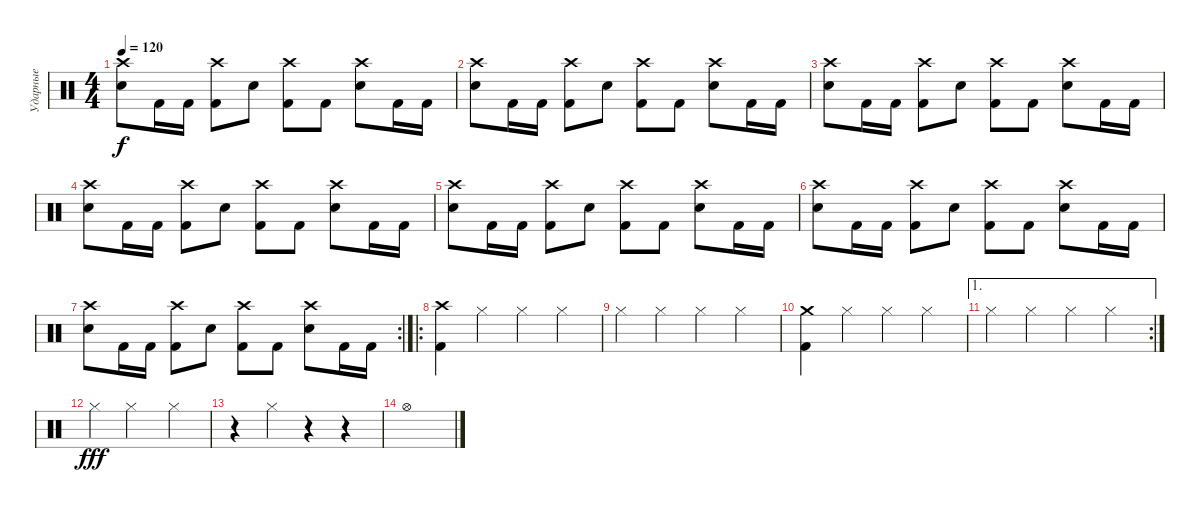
\track ("Ударные" "Ударные") {instrument percussion}
\staff {score}
\articulation defaults
\ts (4 4)
\tempo 120
\clef neutral
\ks c
("Snare (hit) 2" "Crash high (hit)").8{dy f} "Kick (hit) 2".16 "Kick (hit) 2".16 ("Kick (hit) 2" "Crash high (hit)").8 "Snare (hit) 2".8 ("Kick (hit) 2" "Crash high (hit)").8 "Kick (hit) 2".8 ("Snare (hit) 2" "Crash high (hit)").8 "Kick (hit) 2".16 "Kick (hit) 2".16 |
("Snare (hit) 2" "Crash high (hit)").8 "Kick (hit) 2".16 "Kick (hit) 2".16 ("Kick (hit) 2" "Crash high (hit)").8 "Snare (hit) 2".8 ("Kick (hit) 2" "Crash high (hit)").8 "Kick (hit) 2".8 ("Snare (hit) 2" "Crash high (hit)").8 "Kick (hit) 2".16 "Kick (hit) 2".16 |
("Snare (hit) 2" "Crash high (hit)").8 "Kick (hit) 2".16 "Kick (hit) 2".16 ("Kick (hit) 2" "Crash high (hit)").8 "Snare (hit) 2".8 ("Kick (hit) 2" "Crash high (hit)").8 "Kick (hit) 2".8 ("Snare (hit) 2" "Crash high (hit)").8 "Kick (hit) 2".16 "Kick (hit) 2".16 |
("Snare (hit) 2" "Crash high (hit)").8 "Kick (hit) 2".16 "Kick (hit) 2".16 ("Kick (hit) 2" "Crash high (hit)").8 "Snare (hit) 2".8 ("Kick (hit) 2" "Crash high (hit)").8 "Kick (hit) 2".8 ("Snare (hit) 2" "Crash high (hit)").8 "Kick (hit) 2".16 "Kick (hit) 2".16 |
("Snare (hit) 2" "Crash high (hit)").8 "Kick (hit) 2".16 "Kick (hit) 2".16 ("Kick (hit) 2" "Crash high (hit)").8 "Snare (hit) 2".8 ("Kick (hit) 2" "Crash high (hit)").8 "Kick (hit) 2".8 ("Snare (hit) 2" "Crash high (hit)").8 "Kick (hit) 2".16 "Kick (hit) 2".16 |
("Snare (hit) 2" "Crash high (hit)").8 "Kick (hit) 2".16 "Kick (hit) 2".16 ("Kick (hit) 2" "Crash high (hit)").8 "Snare (hit) 2".8 ("Kick (hit) 2" "Crash high (hit)").8 "Kick (hit) 2".8 ("Snare (hit) 2" "Crash high (hit)").8 "Kick (hit) 2".16 "Kick (hit) 2".16 |
\rc 2
("Snare (hit) 2" "Crash high (hit)").8 "Kick (hit) 2".16 "Kick (hit) 2".16 ("Kick (hit) 2" "Crash high (hit)").8 "Snare (hit) 2".8 ("Kick (hit) 2" "Crash high (hit)").8 "Kick (hit) 2".8 ("Snare (hit) 2" "Crash high (hit)").8 "Kick (hit) 2".16 "Kick (hit) 2".16 |
\ro
("Kick (hit) 2" "Crash high (hit)").4 "Hi-Hat (closed)".4 "Hi-Hat (closed)".4 "Hi-Hat (closed)".4 |
"Hi-Hat (closed)".4 "Hi-Hat (closed)".4 "Hi-Hat (closed)".4 "Hi-Hat (closed)".4 |
("Crash medium (hit)" "Kick (hit) 2").4 "Hi-Hat (closed)".4 "Hi-Hat (closed)".4 "Hi-Hat (closed)".4 |
\ae 1
\rc 2 "Hi-Hat (closed)".4 "Hi-Hat (closed)".4 "Hi-Hat (closed)".4 "Hi-Hat (closed)".4
|
"Hi-Hat (closed)".4{dy fff} "Hi-Hat (closed)".2 "Hi-Hat (closed)".4 |
r.4 "Hi-Hat (closed)".4 r.4 r.4 |
"Hi-Hat (open)".1
